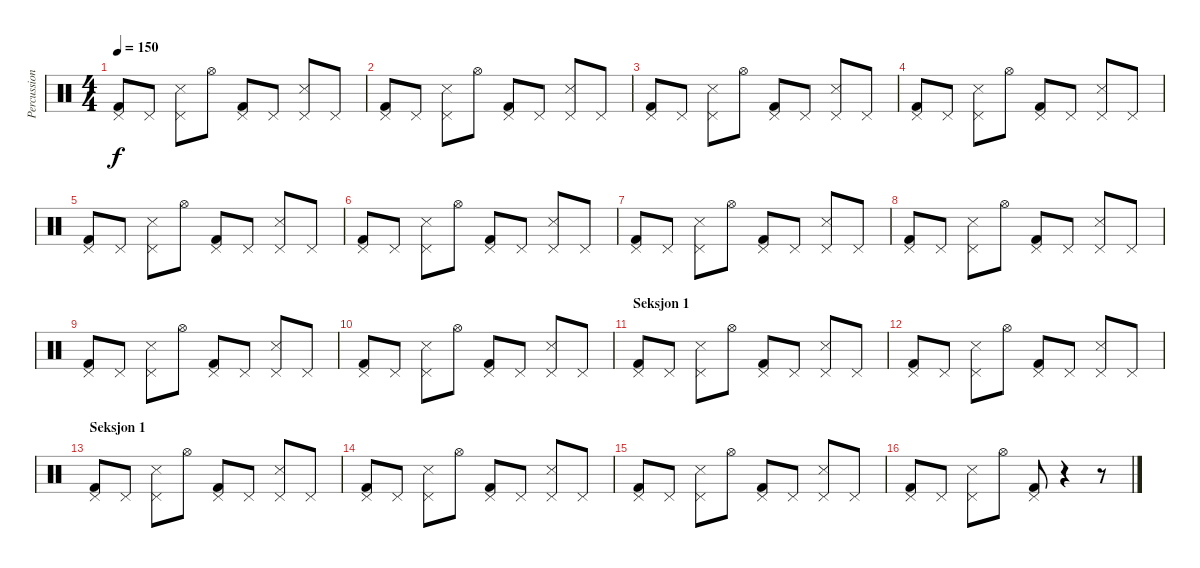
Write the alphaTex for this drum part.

\track ("Percussion" "Percussion") {instrument percussion}
\staff {score}
\articulation defaults
\ts (4 4)
\tempo 150
\clef neutral
\ks c
("Kick (hit) 2" "Pedal Hi-Hat (hit)").8{dy f} "Pedal Hi-Hat (hit)".8 ("Snare (side stick) 3" "Pedal Hi-Hat (hit)").8 "Hi-Hat (open)".8 ("Kick (hit) 2" "Pedal Hi-Hat (hit)").8 "Pedal Hi-Hat (hit)".8 ("Snare (side stick) 3" "Pedal Hi-Hat (hit)").8 "Pedal Hi-Hat (hit)".8 |
("Kick (hit) 2" "Pedal Hi-Hat (hit)").8 "Pedal Hi-Hat (hit)".8 ("Snare (side stick) 3" "Pedal Hi-Hat (hit)").8 "Hi-Hat (open)".8 ("Kick (hit) 2" "Pedal Hi-Hat (hit)").8 "Pedal Hi-Hat (hit)".8 ("Snare (side stick) 3" "Pedal Hi-Hat (hit)").8 "Pedal Hi-Hat (hit)".8 |
("Kick (hit) 2" "Pedal Hi-Hat (hit)").8 "Pedal Hi-Hat (hit)".8 ("Snare (side stick) 3" "Pedal Hi-Hat (hit)").8 "Hi-Hat (open)".8 ("Kick (hit) 2" "Pedal Hi-Hat (hit)").8 "Pedal Hi-Hat (hit)".8 ("Snare (side stick) 3" "Pedal Hi-Hat (hit)").8 "Pedal Hi-Hat (hit)".8 |
("Kick (hit) 2" "Pedal Hi-Hat (hit)").8 "Pedal Hi-Hat (hit)".8 ("Snare (side stick) 3" "Pedal Hi-Hat (hit)").8 "Hi-Hat (open)".8 ("Kick (hit) 2" "Pedal Hi-Hat (hit)").8 "Pedal Hi-Hat (hit)".8 ("Snare (side stick) 3" "Pedal Hi-Hat (hit)").8 "Pedal Hi-Hat (hit)".8 |
("Kick (hit) 2" "Pedal Hi-Hat (hit)").8 "Pedal Hi-Hat (hit)".8 ("Snare (side stick) 3" "Pedal Hi-Hat (hit)").8 "Hi-Hat (open)".8 ("Kick (hit) 2" "Pedal Hi-Hat (hit)").8 "Pedal Hi-Hat (hit)".8 ("Snare (side stick) 3" "Pedal Hi-Hat (hit)").8 "Pedal Hi-Hat (hit)".8 |
("Kick (hit) 2" "Pedal Hi-Hat (hit)").8 "Pedal Hi-Hat (hit)".8 ("Snare (side stick) 3" "Pedal Hi-Hat (hit)").8 "Hi-Hat (open)".8 ("Kick (hit) 2" "Pedal Hi-Hat (hit)").8 "Pedal Hi-Hat (hit)".8 ("Snare (side stick) 3" "Pedal Hi-Hat (hit)").8 "Pedal Hi-Hat (hit)".8 |
("Kick (hit) 2" "Pedal Hi-Hat (hit)").8 "Pedal Hi-Hat (hit)".8 ("Snare (side stick) 3" "Pedal Hi-Hat (hit)").8 "Hi-Hat (open)".8 ("Kick (hit) 2" "Pedal Hi-Hat (hit)").8 "Pedal Hi-Hat (hit)".8 ("Snare (side stick) 3" "Pedal Hi-Hat (hit)").8 "Pedal Hi-Hat (hit)".8 |
("Kick (hit) 2" "Pedal Hi-Hat (hit)").8 "Pedal Hi-Hat (hit)".8 ("Snare (side stick) 3" "Pedal Hi-Hat (hit)").8 "Hi-Hat (open)".8 ("Kick (hit) 2" "Pedal Hi-Hat (hit)").8 "Pedal Hi-Hat (hit)".8 ("Snare (side stick) 3" "Pedal Hi-Hat (hit)").8 "Pedal Hi-Hat (hit)".8 |
("Kick (hit) 2" "Pedal Hi-Hat (hit)").8 "Pedal Hi-Hat (hit)".8 ("Snare (side stick) 3" "Pedal Hi-Hat (hit)").8 "Hi-Hat (open)".8 ("Kick (hit) 2" "Pedal Hi-Hat (hit)").8 "Pedal Hi-Hat (hit)".8 ("Snare (side stick) 3" "Pedal Hi-Hat (hit)").8 "Pedal Hi-Hat (hit)".8 |
("Kick (hit) 2" "Pedal Hi-Hat (hit)").8 "Pedal Hi-Hat (hit)".8 ("Snare (side stick) 3" "Pedal Hi-Hat (hit)").8 "Hi-Hat (open)".8 ("Kick (hit) 2" "Pedal Hi-Hat (hit)").8 "Pedal Hi-Hat (hit)".8 ("Snare (side stick) 3" "Pedal Hi-Hat (hit)").8 "Pedal Hi-Hat (hit)".8 |
\section ("" "Seksjon 1")
("Kick (hit) 2" "Pedal Hi-Hat (hit)").8 "Pedal Hi-Hat (hit)".8 ("Snare (side stick) 3" "Pedal Hi-Hat (hit)").8 "Hi-Hat (open)".8 ("Kick (hit) 2" "Pedal Hi-Hat (hit)").8 "Pedal Hi-Hat (hit)".8 ("Snare (side stick) 3" "Pedal Hi-Hat (hit)").8 "Pedal Hi-Hat (hit)".8 |
("Kick (hit) 2" "Pedal Hi-Hat (hit)").8 "Pedal Hi-Hat (hit)".8 ("Snare (side stick) 3" "Pedal Hi-Hat (hit)").8 "Hi-Hat (open)".8 ("Kick (hit) 2" "Pedal Hi-Hat (hit)").8 "Pedal Hi-Hat (hit)".8 ("Snare (side stick) 3" "Pedal Hi-Hat (hit)").8 "Pedal Hi-Hat (hit)".8 |
\section ("" "Seksjon 1")
("Kick (hit) 2" "Pedal Hi-Hat (hit)").8 "Pedal Hi-Hat (hit)".8 ("Snare (side stick) 3" "Pedal Hi-Hat (hit)").8 "Hi-Hat (open)".8 ("Kick (hit) 2" "Pedal Hi-Hat (hit)").8 "Pedal Hi-Hat (hit)".8 ("Snare (side stick) 3" "Pedal Hi-Hat (hit)").8 "Pedal Hi-Hat (hit)".8 |
("Kick (hit) 2" "Pedal Hi-Hat (hit)").8 "Pedal Hi-Hat (hit)".8 ("Snare (side stick) 3" "Pedal Hi-Hat (hit)").8 "Hi-Hat (open)".8 ("Kick (hit) 2" "Pedal Hi-Hat (hit)").8 "Pedal Hi-Hat (hit)".8 ("Snare (side stick) 3" "Pedal Hi-Hat (hit)").8 "Pedal Hi-Hat (hit)".8 |
("Kick (hit) 2" "Pedal Hi-Hat (hit)").8 "Pedal Hi-Hat (hit)".8 ("Snare (side stick) 3" "Pedal Hi-Hat (hit)").8 "Hi-Hat (open)".8 ("Kick (hit) 2" "Pedal Hi-Hat (hit)").8 "Pedal Hi-Hat (hit)".8 ("Snare (side stick) 3" "Pedal Hi-Hat (hit)").8 "Pedal Hi-Hat (hit)".8 |
("Kick (hit) 2" "Pedal Hi-Hat (hit)").8 "Pedal Hi-Hat (hit)".8 ("Snare (side stick) 3" "Pedal Hi-Hat (hit)").8 "Hi-Hat (open)".8 ("Kick (hit) 2" "Pedal Hi-Hat (hit)").8 r.4 r.8
